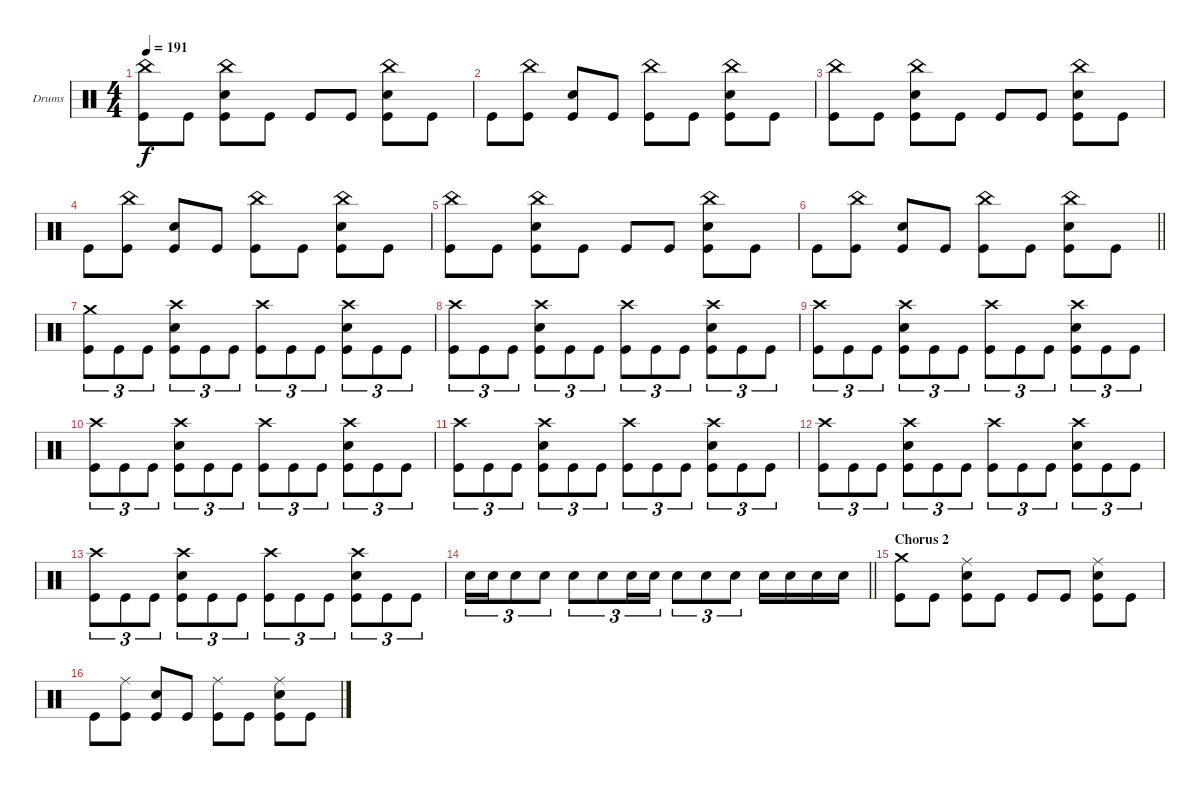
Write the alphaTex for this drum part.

\bracketExtendMode groupsimilarinstruments
\firstSystemTrackNameOrientation horizontal
\otherSystemsTrackNameOrientation horizontal
\track ("Drumkit" "Drums") {instrument percussion}
\staff {score}
\articulation defaults
\ts (4 4)
\tempo 191
\clef neutral
\ks c
("China (hit)" "Kick (hit)").8{dy f} "Kick (hit)".8 ("China (hit)" "Snare (hit) 2" "Kick (hit)").8 "Kick (hit)".8 "Kick (hit)".8 "Kick (hit)".8 ("China (hit)" "Snare (hit) 2" "Kick (hit)").8 "Kick (hit)".8 |
"Kick (hit)".8 ("China (hit)" "Kick (hit)").8 ("Snare (hit) 2" "Kick (hit)").8 "Kick (hit)".8 ("China (hit)" "Kick (hit)").8 "Kick (hit)".8 ("China (hit)" "Snare (hit) 2" "Kick (hit)").8 "Kick (hit)".8 |
("China (hit)" "Kick (hit)").8 "Kick (hit)".8 ("China (hit)" "Snare (hit) 2" "Kick (hit)").8 "Kick (hit)".8 "Kick (hit)".8 "Kick (hit)".8 ("China (hit)" "Snare (hit) 2" "Kick (hit)").8 "Kick (hit)".8 |
"Kick (hit)".8 ("China (hit)" "Kick (hit)").8 ("Snare (hit) 2" "Kick (hit)").8 "Kick (hit)".8 ("China (hit)" "Kick (hit)").8 "Kick (hit)".8 ("China (hit)" "Snare (hit) 2" "Kick (hit)").8 "Kick (hit)".8 |
("China (hit)" "Kick (hit)").8 "Kick (hit)".8 ("China (hit)" "Snare (hit) 2" "Kick (hit)").8 "Kick (hit)".8 "Kick (hit)".8 "Kick (hit)".8 ("China (hit)" "Snare (hit) 2" "Kick (hit)").8 "Kick (hit)".8 |
\barLineRight lightlight "Kick (hit)".8
("China (hit)" "Kick (hit)").8 ("Snare (hit) 2" "Kick (hit)").8 "Kick (hit)".8 ("China (hit)" "Kick (hit)").8 "Kick (hit)".8 ("China (hit)" "Snare (hit) 2" "Kick (hit)").8 "Kick (hit)".8 |
\section ("" "")
("Crash medium (hit)" "Kick (hit)").8{tu (3 2)} "Kick (hit)".8{tu (3 2)} "Kick (hit)".8{tu (3 2)} ("Crash high (hit)" "Snare (hit) 2" "Kick (hit)").8{tu (3 2)} "Kick (hit)".8{tu (3 2)} "Kick (hit)".8{tu (3 2)} ("Crash high (hit)" "Kick (hit)").8{tu (3 2)} "Kick (hit)".8{tu (3 2)} "Kick (hit)".8{tu (3 2)} ("Crash high (hit)" "Snare (hit) 2" "Kick (hit)").8{tu (3 2)} "Kick (hit)".8{tu (3 2)} "Kick (hit)".8{tu (3 2)} |
("Crash high (hit)" "Kick (hit)").8{tu (3 2)} "Kick (hit)".8{tu (3 2)} "Kick (hit)".8{tu (3 2)} ("Crash high (hit)" "Snare (hit) 2" "Kick (hit)").8{tu (3 2)} "Kick (hit)".8{tu (3 2)} "Kick (hit)".8{tu (3 2)} ("Crash high (hit)" "Kick (hit)").8{tu (3 2)} "Kick (hit)".8{tu (3 2)} "Kick (hit)".8{tu (3 2)} ("Crash high (hit)" "Snare (hit) 2" "Kick (hit)").8{tu (3 2)} "Kick (hit)".8{tu (3 2)} "Kick (hit)".8{tu (3 2)} |
("Crash high (hit)" "Kick (hit)").8{tu (3 2)} "Kick (hit)".8{tu (3 2)} "Kick (hit)".8{tu (3 2)} ("Crash high (hit)" "Snare (hit) 2" "Kick (hit)").8{tu (3 2)} "Kick (hit)".8{tu (3 2)} "Kick (hit)".8{tu (3 2)} ("Crash high (hit)" "Kick (hit)").8{tu (3 2)} "Kick (hit)".8{tu (3 2)} "Kick (hit)".8{tu (3 2)} ("Crash high (hit)" "Snare (hit) 2" "Kick (hit)").8{tu (3 2)} "Kick (hit)".8{tu (3 2)} "Kick (hit)".8{tu (3 2)} |
("Crash high (hit)" "Kick (hit)").8{tu (3 2)} "Kick (hit)".8{tu (3 2)} "Kick (hit)".8{tu (3 2)} ("Crash high (hit)" "Snare (hit) 2" "Kick (hit)").8{tu (3 2)} "Kick (hit)".8{tu (3 2)} "Kick (hit)".8{tu (3 2)} ("Crash high (hit)" "Kick (hit)").8{tu (3 2)} "Kick (hit)".8{tu (3 2)} "Kick (hit)".8{tu (3 2)} ("Crash high (hit)" "Snare (hit) 2" "Kick (hit)").8{tu (3 2)} "Kick (hit)".8{tu (3 2)} "Kick (hit)".8{tu (3 2)} |
("Crash high (hit)" "Kick (hit)").8{tu (3 2)} "Kick (hit)".8{tu (3 2)} "Kick (hit)".8{tu (3 2)} ("Crash high (hit)" "Snare (hit) 2" "Kick (hit)").8{tu (3 2)} "Kick (hit)".8{tu (3 2)} "Kick (hit)".8{tu (3 2)} ("Crash high (hit)" "Kick (hit)").8{tu (3 2)} "Kick (hit)".8{tu (3 2)} "Kick (hit)".8{tu (3 2)} ("Crash high (hit)" "Snare (hit) 2" "Kick (hit)").8{tu (3 2)} "Kick (hit)".8{tu (3 2)} "Kick (hit)".8{tu (3 2)} |
("Crash high (hit)" "Kick (hit)").8{tu (3 2)} "Kick (hit)".8{tu (3 2)} "Kick (hit)".8{tu (3 2)} ("Crash high (hit)" "Snare (hit) 2" "Kick (hit)").8{tu (3 2)} "Kick (hit)".8{tu (3 2)} "Kick (hit)".8{tu (3 2)} ("Crash high (hit)" "Kick (hit)").8{tu (3 2)} "Kick (hit)".8{tu (3 2)} "Kick (hit)".8{tu (3 2)} ("Crash high (hit)" "Snare (hit) 2" "Kick (hit)").8{tu (3 2)} "Kick (hit)".8{tu (3 2)} "Kick (hit)".8{tu (3 2)} |
("Crash high (hit)" "Kick (hit)").8{tu (3 2)} "Kick (hit)".8{tu (3 2)} "Kick (hit)".8{tu (3 2)} ("Crash high (hit)" "Snare (hit) 2" "Kick (hit)").8{tu (3 2)} "Kick (hit)".8{tu (3 2)} "Kick (hit)".8{tu (3 2)} ("Crash high (hit)" "Kick (hit)").8{tu (3 2)} "Kick (hit)".8{tu (3 2)} "Kick (hit)".8{tu (3 2)} ("Crash high (hit)" "Snare (hit) 2" "Kick (hit)").8{tu (3 2)} "Kick (hit)".8{tu (3 2)} "Kick (hit)".8{tu (3 2)} |
\barLineRight lightlight "Snare (hit) 2".16{tu (3 2)} "Snare (hit) 2".16{tu (3 2)} "Snare (hit) 2".8{tu (3 2)} "Snare (hit) 2".8{tu (3 2)} "Snare (hit) 2".8{tu (3 2)} "Snare (hit) 2".8{tu (3 2)} "Snare (hit) 2".16{tu (3 2)} "Snare (hit) 2".16{tu (3 2)} "Snare (hit) 2".8{tu (3 2)} "Snare (hit) 2".8{tu (3 2)} "Snare (hit) 2".8{tu (3 2)} "Snare (hit) 2".16 "Snare (hit) 2".16 "Snare (hit) 2".16 "Snare (hit) 2".16
|
\section ("" "Chorus 2")
("Crash medium (hit)" "Kick (hit)").8 "Kick (hit)".8 ("Ride (middle)" "Snare (hit) 2" "Kick (hit)").8 "Kick (hit)".8 "Kick (hit)".8 "Kick (hit)".8 ("Ride (middle)" "Snare (hit) 2" "Kick (hit)").8 "Kick (hit)".8 |
"Kick (hit)".8 ("Ride (middle)" "Kick (hit)").8 ("Snare (hit) 2" "Kick (hit)").8 "Kick (hit)".8 ("Ride (middle)" "Kick (hit)").8 "Kick (hit)".8 ("Ride (middle)" "Snare (hit) 2" "Kick (hit)").8 "Kick (hit)".8
